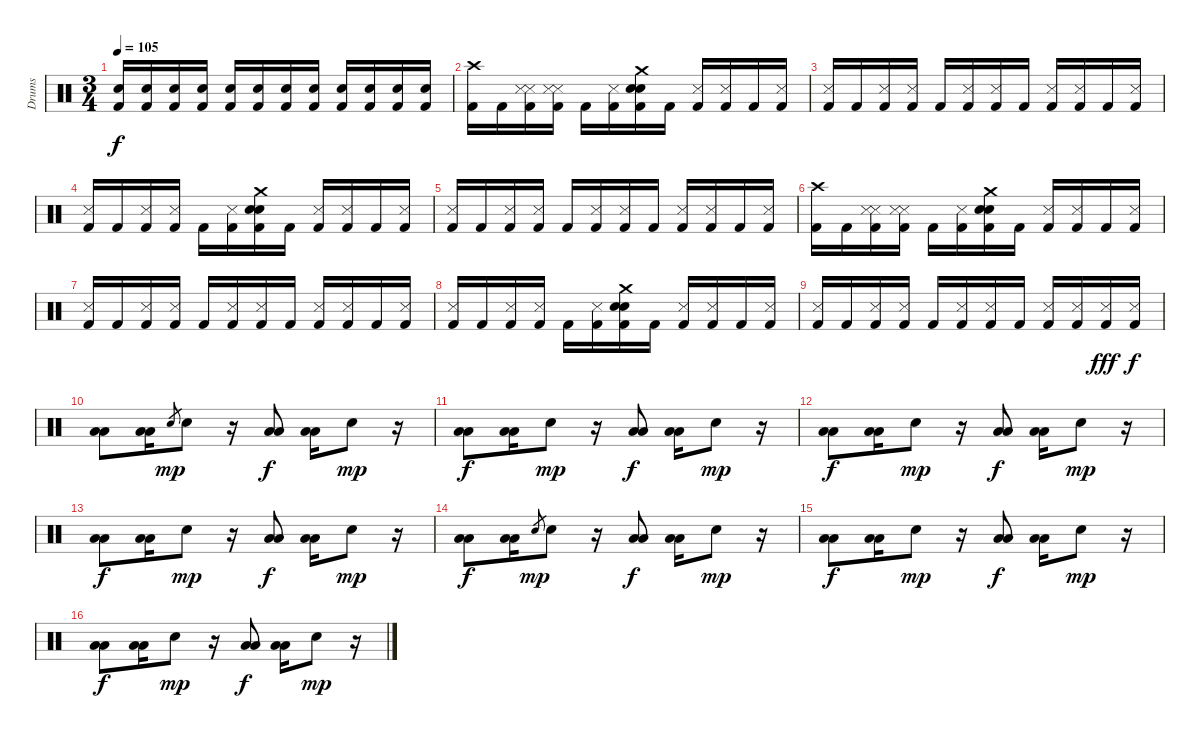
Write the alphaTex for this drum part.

\track ("Drums" "Drums") {instrument percussion}
\staff {score}
\articulation defaults
\ts (3 4)
\tempo 105
\clef neutral
\ks c
("Snare (hit) 2" "Kick (hit) 2").16{dy f} ("Snare (hit) 2" "Kick (hit) 2").16 ("Snare (hit) 2" "Kick (hit) 2").16 ("Snare (hit) 2" "Kick (hit) 2").16 ("Snare (hit) 2" "Kick (hit) 2").16 ("Snare (hit) 2" "Kick (hit) 2").16 ("Snare (hit) 2" "Kick (hit) 2").16 ("Snare (hit) 2" "Kick (hit) 2").16 ("Snare (hit) 2" "Kick (hit) 2").16 ("Snare (hit) 2" "Kick (hit) 2").16 ("Snare (hit) 2" "Kick (hit) 2").16 ("Snare (hit) 2" "Kick (hit) 2").16 |
("Crash high (hit)" "Kick (hit) 2").16 "Kick (hit) 2".16 ("Snare (side stick) 3" "Snare (side stick) 3" "Kick (hit) 2").16 ("Snare (side stick) 3" "Snare (side stick) 3" "Kick (hit) 2").16 "Kick (hit) 2".16 ("Snare (side stick) 3" "Kick (hit) 2").16 ("Crash medium (hit)" "Snare (hit) 2" "Snare (hit) 2" "Kick (hit) 2").16 "Kick (hit) 2".16 ("Snare (side stick) 3" "Kick (hit) 2").16 ("Snare (side stick) 3" "Kick (hit) 2").16 "Kick (hit) 2".16 ("Snare (side stick) 3" "Kick (hit) 2").16 |
("Snare (side stick) 3" "Kick (hit) 2").16 "Kick (hit) 2".16 ("Snare (side stick) 3" "Kick (hit) 2").16 ("Snare (side stick) 3" "Kick (hit) 2").16 "Kick (hit) 2".16 ("Snare (side stick) 3" "Kick (hit) 2").16 ("Snare (side stick) 3" "Kick (hit) 2").16 "Kick (hit) 2".16 ("Snare (side stick) 3" "Kick (hit) 2").16 ("Snare (side stick) 3" "Kick (hit) 2").16 "Kick (hit) 2".16 ("Snare (side stick) 3" "Kick (hit) 2").16 |
("Snare (side stick) 3" "Kick (hit) 2").16 "Kick (hit) 2".16 ("Snare (side stick) 3" "Kick (hit) 2").16 ("Snare (side stick) 3" "Kick (hit) 2").16 "Kick (hit) 2".16 ("Snare (side stick) 3" "Kick (hit) 2").16 ("Crash medium (hit)" "Snare (hit) 2" "Snare (hit) 2" "Kick (hit) 2").16 "Kick (hit) 2".16 ("Snare (side stick) 3" "Kick (hit) 2").16 ("Snare (side stick) 3" "Kick (hit) 2").16 "Kick (hit) 2".16 ("Snare (side stick) 3" "Kick (hit) 2").16 |
("Snare (side stick) 3" "Kick (hit) 2").16 "Kick (hit) 2".16 ("Snare (side stick) 3" "Kick (hit) 2").16 ("Snare (side stick) 3" "Kick (hit) 2").16 "Kick (hit) 2".16 ("Snare (side stick) 3" "Kick (hit) 2").16 ("Snare (side stick) 3" "Kick (hit) 2").16 "Kick (hit) 2".16 ("Snare (side stick) 3" "Kick (hit) 2").16 ("Snare (side stick) 3" "Kick (hit) 2").16 "Kick (hit) 2".16 ("Snare (side stick) 3" "Kick (hit) 2").16 |
("Crash high (hit)" "Kick (hit) 2").16 "Kick (hit) 2".16 ("Snare (side stick) 3" "Snare (side stick) 3" "Kick (hit) 2").16 ("Snare (side stick) 3" "Snare (side stick) 3" "Kick (hit) 2").16 "Kick (hit) 2".16 ("Snare (side stick) 3" "Kick (hit) 2").16 ("Crash medium (hit)" "Snare (hit) 2" "Snare (hit) 2" "Kick (hit) 2").16 "Kick (hit) 2".16 ("Snare (side stick) 3" "Kick (hit) 2").16 ("Snare (side stick) 3" "Kick (hit) 2").16 "Kick (hit) 2".16 ("Snare (side stick) 3" "Kick (hit) 2").16 |
("Snare (side stick) 3" "Kick (hit) 2").16 "Kick (hit) 2".16 ("Snare (side stick) 3" "Kick (hit) 2").16 ("Snare (side stick) 3" "Kick (hit) 2").16 "Kick (hit) 2".16 ("Snare (side stick) 3" "Kick (hit) 2").16 ("Snare (side stick) 3" "Kick (hit) 2").16 "Kick (hit) 2".16 ("Snare (side stick) 3" "Kick (hit) 2").16 ("Snare (side stick) 3" "Kick (hit) 2").16 "Kick (hit) 2".16 ("Snare (side stick) 3" "Kick (hit) 2").16 |
("Snare (side stick) 3" "Kick (hit) 2").16 "Kick (hit) 2".16 ("Snare (side stick) 3" "Kick (hit) 2").16 ("Snare (side stick) 3" "Kick (hit) 2").16 "Kick (hit) 2".16 ("Snare (side stick) 3" "Kick (hit) 2").16 ("Crash medium (hit)" "Snare (hit) 2" "Snare (hit) 2" "Kick (hit) 2").16 "Kick (hit) 2".16 ("Snare (side stick) 3" "Kick (hit) 2").16 ("Snare (side stick) 3" "Kick (hit) 2").16 "Kick (hit) 2".16 ("Snare (side stick) 3" "Kick (hit) 2").16 |
("Snare (side stick) 3" "Kick (hit) 2").16 "Kick (hit) 2".16 ("Snare (side stick) 3" "Kick (hit) 2").16 ("Snare (side stick) 3" "Kick (hit) 2").16 "Kick (hit) 2".16 ("Snare (side stick) 3" "Kick (hit) 2").16 ("Snare (side stick) 3" "Kick (hit) 2").16 "Kick (hit) 2".16 ("Snare (side stick) 3" "Kick (hit) 2").16 ("Snare (side stick) 3" "Kick (hit) 2").16 ("Snare (side stick) 3" "Kick (hit) 2").16{dy fff} ("Snare (side stick) 3" "Kick (hit) 2").16{dy f} |
("Low Floor Tom (hit)" "Low Floor Tom (hit)").8 ("Low Floor Tom (hit)" "Low Floor Tom (hit)").16 "Hand Clap (hit)".8{gr dy mp} "Hand Clap (hit)".8 r.16 ("Low Floor Tom (hit)" "Low Floor Tom (hit)").8{dy f} ("Low Floor Tom (hit)" "Low Floor Tom (hit)").16 "Hand Clap (hit)".8{dy mp} r.16 |
("Low Floor Tom (hit)" "Low Floor Tom (hit)").8{dy f} ("Low Floor Tom (hit)" "Low Floor Tom (hit)").16 "Hand Clap (hit)".8{dy mp} r.16 ("Low Floor Tom (hit)" "Low Floor Tom (hit)").8{dy f} ("Low Floor Tom (hit)" "Low Floor Tom (hit)").16 "Hand Clap (hit)".8{dy mp} r.16 |
("Low Floor Tom (hit)" "Low Floor Tom (hit)").8{dy f} ("Low Floor Tom (hit)" "Low Floor Tom (hit)").16 "Hand Clap (hit)".8{dy mp} r.16 ("Low Floor Tom (hit)" "Low Floor Tom (hit)").8{dy f} ("Low Floor Tom (hit)" "Low Floor Tom (hit)").16 "Hand Clap (hit)".8{dy mp} r.16 |
("Low Floor Tom (hit)" "Low Floor Tom (hit)").8{dy f} ("Low Floor Tom (hit)" "Low Floor Tom (hit)").16 "Hand Clap (hit)".8{dy mp} r.16 ("Low Floor Tom (hit)" "Low Floor Tom (hit)").8{dy f} ("Low Floor Tom (hit)" "Low Floor Tom (hit)").16 "Hand Clap (hit)".8{dy mp} r.16 |
("Low Floor Tom (hit)" "Low Floor Tom (hit)").8{dy f} ("Low Floor Tom (hit)" "Low Floor Tom (hit)").16 "Hand Clap (hit)".8{gr dy mp} "Hand Clap (hit)".8 r.16 ("Low Floor Tom (hit)" "Low Floor Tom (hit)").8{dy f} ("Low Floor Tom (hit)" "Low Floor Tom (hit)").16 "Hand Clap (hit)".8{dy mp} r.16 |
("Low Floor Tom (hit)" "Low Floor Tom (hit)").8{dy f} ("Low Floor Tom (hit)" "Low Floor Tom (hit)").16 "Hand Clap (hit)".8{dy mp} r.16 ("Low Floor Tom (hit)" "Low Floor Tom (hit)").8{dy f} ("Low Floor Tom (hit)" "Low Floor Tom (hit)").16 "Hand Clap (hit)".8{dy mp} r.16 |
("Low Floor Tom (hit)" "Low Floor Tom (hit)").8{dy f} ("Low Floor Tom (hit)" "Low Floor Tom (hit)").16 "Hand Clap (hit)".8{dy mp} r.16 ("Low Floor Tom (hit)" "Low Floor Tom (hit)").8{dy f} ("Low Floor Tom (hit)" "Low Floor Tom (hit)").16 "Hand Clap (hit)".8{dy mp} r.16
